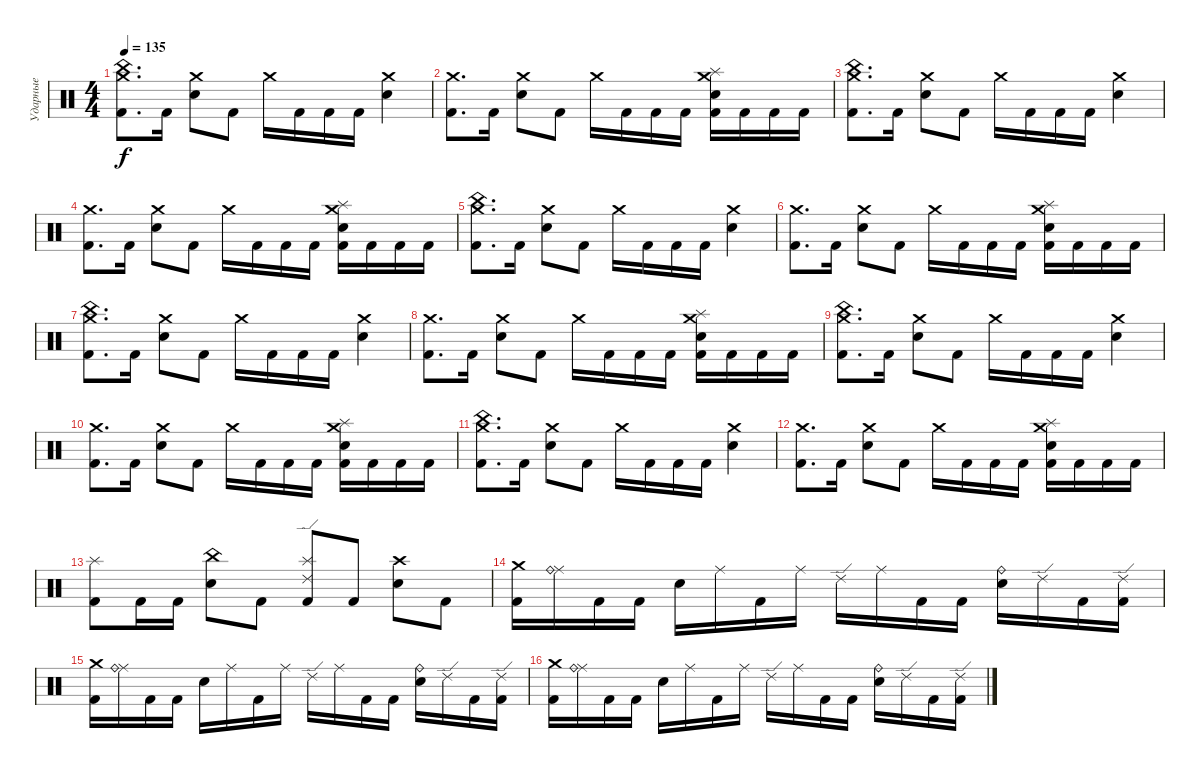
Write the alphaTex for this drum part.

\track ("Ударные" "Ударные") {instrument percussion}
\staff {score}
\articulation defaults
\ts (4 4)
\tempo 135
\clef neutral
\ks c
("Kick (hit) 2" "Crash medium (hit)" "China (hit)").8{d dy f} "Kick (hit) 2".16 ("Snare (hit) 2" "Crash medium (hit)").8 "Kick (hit) 2".8 "Crash medium (hit)".16 "Kick (hit) 2".16 "Kick (hit) 2".16 "Kick (hit) 2".16 ("Snare (hit) 2" "Crash medium (hit)").4 |
("Kick (hit) 2" "Crash medium (hit)").8{d} "Kick (hit) 2".16 ("Snare (hit) 2" "Crash medium (hit)").8 "Kick (hit) 2".8 "Crash medium (hit)".16 "Kick (hit) 2".16 "Kick (hit) 2".16 "Kick (hit) 2".16 ("Snare (hit) 2" "Crash medium (hit)" "Kick (hit) 2" "Splash (hit)").16 "Kick (hit) 2".16 "Kick (hit) 2".16 "Kick (hit) 2".16 |
("Kick (hit) 2" "Crash medium (hit)" "China (hit)").8{d} "Kick (hit) 2".16 ("Snare (hit) 2" "Crash medium (hit)").8 "Kick (hit) 2".8 "Crash medium (hit)".16 "Kick (hit) 2".16 "Kick (hit) 2".16 "Kick (hit) 2".16 ("Snare (hit) 2" "Crash medium (hit)").4 |
("Kick (hit) 2" "Crash medium (hit)").8{d} "Kick (hit) 2".16 ("Snare (hit) 2" "Crash medium (hit)").8 "Kick (hit) 2".8 "Crash medium (hit)".16 "Kick (hit) 2".16 "Kick (hit) 2".16 "Kick (hit) 2".16 ("Snare (hit) 2" "Crash medium (hit)" "Kick (hit) 2" "Splash (hit)").16 "Kick (hit) 2".16 "Kick (hit) 2".16 "Kick (hit) 2".16 |
("Kick (hit) 2" "Crash medium (hit)" "China (hit)").8{d} "Kick (hit) 2".16 ("Snare (hit) 2" "Crash medium (hit)").8 "Kick (hit) 2".8 "Crash medium (hit)".16 "Kick (hit) 2".16 "Kick (hit) 2".16 "Kick (hit) 2".16 ("Snare (hit) 2" "Crash medium (hit)").4 |
("Kick (hit) 2" "Crash medium (hit)").8{d} "Kick (hit) 2".16 ("Snare (hit) 2" "Crash medium (hit)").8 "Kick (hit) 2".8 "Crash medium (hit)".16 "Kick (hit) 2".16 "Kick (hit) 2".16 "Kick (hit) 2".16 ("Snare (hit) 2" "Crash medium (hit)" "Kick (hit) 2" "Splash (hit)").16 "Kick (hit) 2".16 "Kick (hit) 2".16 "Kick (hit) 2".16 |
("Kick (hit) 2" "Crash medium (hit)" "China (hit)").8{d} "Kick (hit) 2".16 ("Snare (hit) 2" "Crash medium (hit)").8 "Kick (hit) 2".8 "Crash medium (hit)".16 "Kick (hit) 2".16 "Kick (hit) 2".16 "Kick (hit) 2".16 ("Snare (hit) 2" "Crash medium (hit)").4 |
("Kick (hit) 2" "Crash medium (hit)").8{d} "Kick (hit) 2".16 ("Snare (hit) 2" "Crash medium (hit)").8 "Kick (hit) 2".8 "Crash medium (hit)".16 "Kick (hit) 2".16 "Kick (hit) 2".16 "Kick (hit) 2".16 ("Snare (hit) 2" "Crash medium (hit)" "Kick (hit) 2" "Splash (hit)").16 "Kick (hit) 2".16 "Kick (hit) 2".16 "Kick (hit) 2".16 |
("Kick (hit) 2" "Crash medium (hit)" "China (hit)").8{d} "Kick (hit) 2".16 ("Snare (hit) 2" "Crash medium (hit)").8 "Kick (hit) 2".8 "Crash medium (hit)".16 "Kick (hit) 2".16 "Kick (hit) 2".16 "Kick (hit) 2".16 ("Snare (hit) 2" "Crash medium (hit)").4 |
("Kick (hit) 2" "Crash medium (hit)").8{d} "Kick (hit) 2".16 ("Snare (hit) 2" "Crash medium (hit)").8 "Kick (hit) 2".8 "Crash medium (hit)".16 "Kick (hit) 2".16 "Kick (hit) 2".16 "Kick (hit) 2".16 ("Snare (hit) 2" "Crash medium (hit)" "Kick (hit) 2" "Splash (hit)").16 "Kick (hit) 2".16 "Kick (hit) 2".16 "Kick (hit) 2".16 |
("Kick (hit) 2" "Crash medium (hit)" "China (hit)").8{d} "Kick (hit) 2".16 ("Snare (hit) 2" "Crash medium (hit)").8 "Kick (hit) 2".8 "Crash medium (hit)".16 "Kick (hit) 2".16 "Kick (hit) 2".16 "Kick (hit) 2".16 ("Snare (hit) 2" "Crash medium (hit)").4 |
("Kick (hit) 2" "Crash medium (hit)").8{d} "Kick (hit) 2".16 ("Snare (hit) 2" "Crash medium (hit)").8 "Kick (hit) 2".8 "Crash medium (hit)".16 "Kick (hit) 2".16 "Kick (hit) 2".16 "Kick (hit) 2".16 ("Snare (hit) 2" "Crash medium (hit)" "Kick (hit) 2" "Splash (hit)").16 "Kick (hit) 2".16 "Kick (hit) 2".16 "Kick (hit) 2".16 |
("Kick (hit) 2" "Splash (hit)").8 "Kick (hit) 2".16 "Kick (hit) 2".16 ("Snare (hit) 2" "China (hit)").8 "Kick (hit) 2".8 ("Kick (hit) 2" "Ride (edge) 2" "Splash (hit)").8 "Kick (hit) 2".8 ("Snare (hit) 2" "Crash high (hit)").8 "Kick (hit) 2".8 |
("Kick (hit) 2" "Crash medium (hit)").16 ("Ride (middle)" "Ride (bell)").16 "Kick (hit) 2".16 "Kick (hit) 2".16 "Snare (hit) 2".16 "Ride (middle)".16 "Kick (hit) 2".16 "Ride (middle)".16 "Ride (edge) 2".16 "Ride (middle)".16 "Kick (hit) 2".16 "Kick (hit) 2".16 ("Snare (hit) 2" "Ride (bell)").16 "Ride (edge) 2".16 "Kick (hit) 2".16 ("Ride (edge) 2" "Kick (hit) 2").16 |
("Kick (hit) 2" "Crash medium (hit)").16 ("Ride (middle)" "Ride (bell)").16 "Kick (hit) 2".16 "Kick (hit) 2".16 "Snare (hit) 2".16 "Ride (middle)".16 "Kick (hit) 2".16 "Ride (middle)".16 "Ride (edge) 2".16 "Ride (middle)".16 "Kick (hit) 2".16 "Kick (hit) 2".16 ("Snare (hit) 2" "Ride (bell)").16 "Ride (edge) 2".16 "Kick (hit) 2".16 ("Ride (edge) 2" "Kick (hit) 2").16 |
("Kick (hit) 2" "Crash medium (hit)").16 ("Ride (middle)" "Ride (bell)").16 "Kick (hit) 2".16 "Kick (hit) 2".16 "Snare (hit) 2".16 "Ride (middle)".16 "Kick (hit) 2".16 "Ride (middle)".16 "Ride (edge) 2".16 "Ride (middle)".16 "Kick (hit) 2".16 "Kick (hit) 2".16 ("Snare (hit) 2" "Ride (bell)").16 "Ride (edge) 2".16 "Kick (hit) 2".16 ("Ride (edge) 2" "Kick (hit) 2").16
